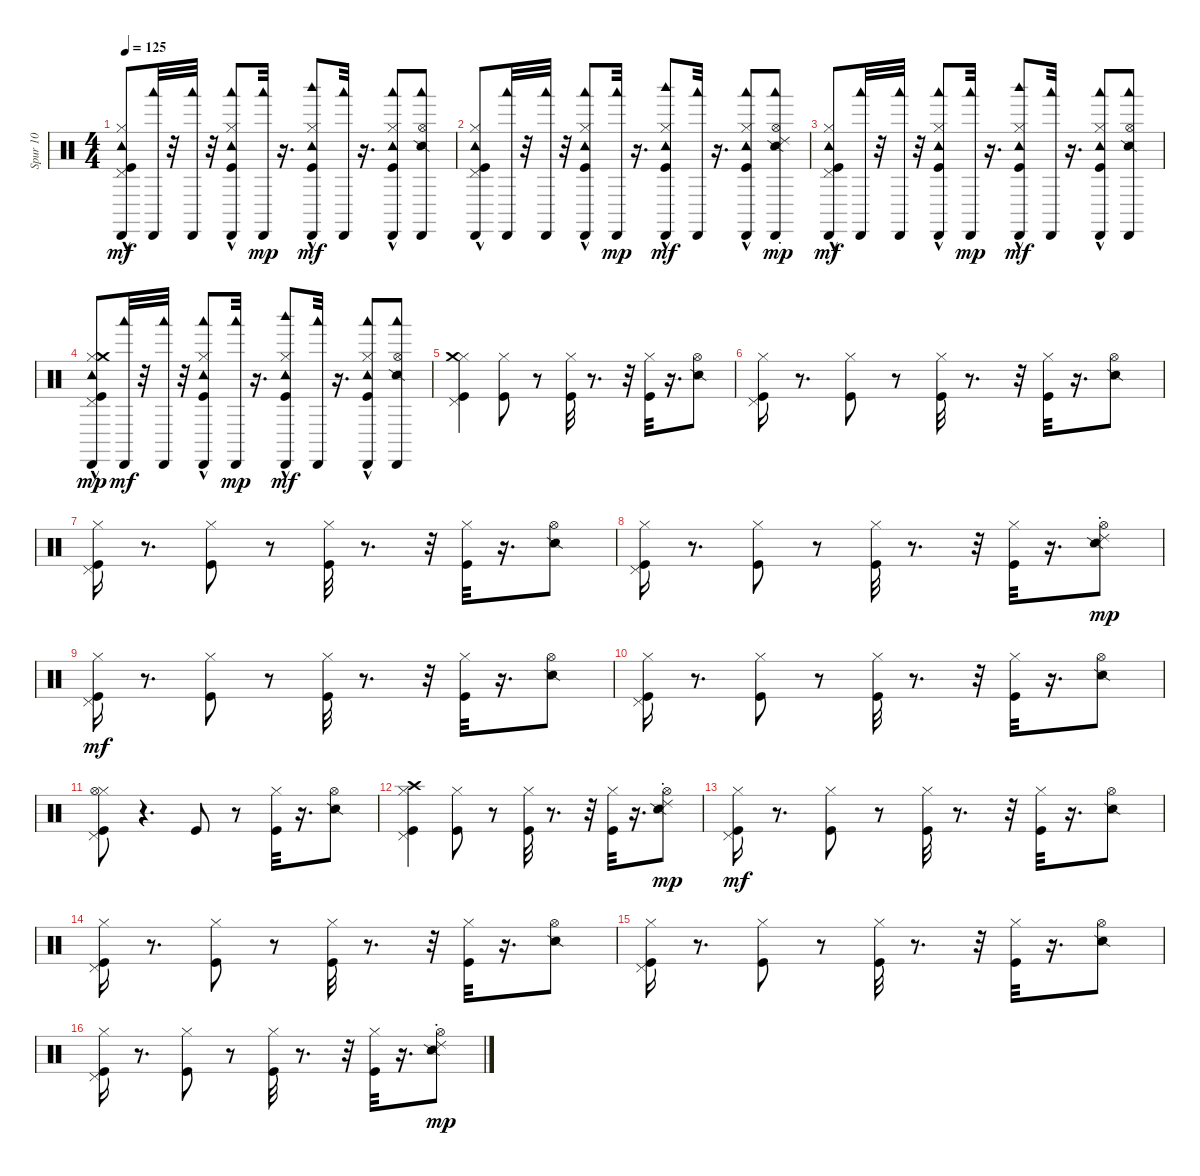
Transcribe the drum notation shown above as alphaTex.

\track ("Spur 10" "Spur 10") {instrument percussion}
\staff {score}
\articulation defaults
\ts (4 4)
\tempo 125
\clef neutral
\ks c
("Cabasa (hit)" "Tambourine (hit)"{hac} "Pedal Hi-Hat (hit)" "Kick (hit)" "Hi-Hat (closed)").8{dy mf} ("Woodblock low (hit)" "Cabasa (hit)").32 r.32 ("Woodblock low (hit)" "Cabasa (hit)").32 r.32 ("Woodblock low (hit)" "Cabasa (hit)" "Tambourine (hit)"{hac} "Hi-Hat (closed)" "Kick (hit)").8 ("Woodblock low (hit)" "Cabasa (hit)").32{dy mp} r.16{d} ("Woodblock high (hit)" "Cabasa (hit)" "Tambourine (hit)"{hac} "Hi-Hat (closed)" "Kick (hit)").8{dy mf} ("Woodblock low (hit)" "Cabasa (hit)").32 r.16{d} ("Woodblock low (hit)" "Cabasa (hit)" "Tambourine (hit)"{hac} "Hi-Hat (closed)" "Kick (hit)").8 ("Woodblock low (hit)" "Cabasa (hit)" "Hi-Hat (open)" "Snare (side stick) 2").8 |
("Cabasa (hit)" "Tambourine (hit)"{hac} "Pedal Hi-Hat (hit)" "Kick (hit)" "Hi-Hat (closed)").8 ("Woodblock low (hit)" "Cabasa (hit)").32 r.32 ("Woodblock low (hit)" "Cabasa (hit)").32 r.32 ("Woodblock low (hit)" "Cabasa (hit)" "Tambourine (hit)"{hac} "Hi-Hat (closed)" "Kick (hit)").8 ("Woodblock low (hit)" "Cabasa (hit)").32{dy mp} r.16{d} ("Woodblock high (hit)" "Cabasa (hit)" "Tambourine (hit)"{hac} "Hi-Hat (closed)" "Kick (hit)").8{dy mf} ("Woodblock low (hit)" "Cabasa (hit)").32 r.16{d} ("Woodblock low (hit)" "Cabasa (hit)" "Tambourine (hit)"{hac} "Hi-Hat (closed)" "Kick (hit)").8 ("Woodblock low (hit)" "Cabasa (hit)" "Hi-Hat (open)" "Snare (side stick) 2" "Ride (choke) 2").8{dy mp} |
("Cabasa (hit)" "Tambourine (hit)"{hac} "Pedal Hi-Hat (hit)" "Kick (hit)" "Hi-Hat (closed)").8{dy mf} ("Woodblock low (hit)" "Cabasa (hit)").32 r.32 ("Woodblock low (hit)" "Cabasa (hit)").32 r.32 ("Woodblock low (hit)" "Cabasa (hit)" "Tambourine (hit)"{hac} "Hi-Hat (closed)" "Kick (hit)").8 ("Woodblock low (hit)" "Cabasa (hit)").32{dy mp} r.16{d} ("Woodblock high (hit)" "Cabasa (hit)" "Tambourine (hit)"{hac} "Hi-Hat (closed)" "Kick (hit)").8{dy mf} ("Woodblock low (hit)" "Cabasa (hit)").32 r.16{d} ("Woodblock low (hit)" "Cabasa (hit)" "Tambourine (hit)"{hac} "Hi-Hat (closed)" "Kick (hit)").8 ("Woodblock low (hit)" "Cabasa (hit)" "Hi-Hat (open)" "Snare (side stick) 2").8 |
("Cabasa (hit)" "Tambourine (hit)"{hac} "Pedal Hi-Hat (hit)" "Kick (hit)" "Hi-Hat (closed)" "Crash medium (hit)"{hac}).8{dy mp} ("Woodblock low (hit)" "Cabasa (hit)").32{dy mf} r.32 ("Woodblock low (hit)" "Cabasa (hit)").32 r.32 ("Woodblock low (hit)" "Cabasa (hit)" "Tambourine (hit)"{hac} "Hi-Hat (closed)" "Kick (hit)").8 ("Woodblock low (hit)" "Cabasa (hit)").32{dy mp} r.16{d} ("Woodblock high (hit)" "Cabasa (hit)" "Tambourine (hit)"{hac} "Hi-Hat (closed)" "Kick (hit)").8{dy mf} ("Woodblock low (hit)" "Cabasa (hit)").32 r.16{d} ("Woodblock low (hit)" "Cabasa (hit)" "Tambourine (hit)"{hac} "Hi-Hat (closed)" "Kick (hit)").8 ("Woodblock low (hit)" "Cabasa (hit)" "Hi-Hat (open)" "Snare (side stick) 2").8 |
("Pedal Hi-Hat (hit)" "Kick (hit)" "Hi-Hat (closed)" "Crash medium (hit)").4 ("Hi-Hat (closed)" "Kick (hit)").8 r.8 ("Hi-Hat (closed)" "Kick (hit)").32 r.8{d} r.32 ("Hi-Hat (closed)" "Kick (hit)").32 r.16{d} ("Hi-Hat (open)" "Snare (side stick) 2").8 |
("Pedal Hi-Hat (hit)" "Kick (hit)" "Hi-Hat (closed)").16 r.8{d} ("Hi-Hat (closed)" "Kick (hit)").8 r.8 ("Hi-Hat (closed)" "Kick (hit)").32 r.8{d} r.32 ("Hi-Hat (closed)" "Kick (hit)").32 r.16{d} ("Hi-Hat (open)" "Snare (side stick) 2").8 |
("Pedal Hi-Hat (hit)" "Kick (hit)" "Hi-Hat (closed)").16 r.8{d} ("Hi-Hat (closed)" "Kick (hit)").8 r.8 ("Hi-Hat (closed)" "Kick (hit)").32 r.8{d} r.32 ("Hi-Hat (closed)" "Kick (hit)").32 r.16{d} ("Hi-Hat (open)" "Snare (side stick) 2").8 |
("Pedal Hi-Hat (hit)" "Kick (hit)" "Hi-Hat (closed)").16 r.8{d} ("Hi-Hat (closed)" "Kick (hit)").8 r.8 ("Hi-Hat (closed)" "Kick (hit)").32 r.8{d} r.32 ("Hi-Hat (closed)" "Kick (hit)").32 r.16{d} ("Hi-Hat (open)" "Snare (side stick) 2" "Ride (choke) 2").8{dy mp} |
("Pedal Hi-Hat (hit)" "Kick (hit)" "Hi-Hat (closed)").16{dy mf} r.8{d} ("Hi-Hat (closed)" "Kick (hit)").8 r.8 ("Hi-Hat (closed)" "Kick (hit)").32 r.8{d} r.32 ("Hi-Hat (closed)" "Kick (hit)").32 r.16{d} ("Hi-Hat (open)" "Snare (side stick) 2").8 |
("Pedal Hi-Hat (hit)" "Kick (hit)" "Hi-Hat (closed)").16 r.8{d} ("Hi-Hat (closed)" "Kick (hit)").8 r.8 ("Hi-Hat (closed)" "Kick (hit)").32 r.8{d} r.32 ("Hi-Hat (closed)" "Kick (hit)").32 r.16{d} ("Hi-Hat (open)" "Snare (side stick) 2").8 |
("Pedal Hi-Hat (hit)" "Kick (hit)" "Hi-Hat (closed)" "Hi-Hat (open)").8 r.4{d} "Kick (hit)".8 r.8 ("Hi-Hat (closed)" "Kick (hit)").32 r.16{d} ("Hi-Hat (open)" "Snare (side stick) 2").8 |
("Pedal Hi-Hat (hit)" "Kick (hit)" "Hi-Hat (closed)" "Crash high (hit)").4 ("Hi-Hat (closed)" "Kick (hit)").8 r.8 ("Hi-Hat (closed)" "Kick (hit)").32 r.8{d} r.32 ("Hi-Hat (closed)" "Kick (hit)").32 r.16{d} ("Hi-Hat (open)" "Snare (side stick) 2" "Ride (choke) 2").8{dy mp} |
("Pedal Hi-Hat (hit)" "Kick (hit)" "Hi-Hat (closed)").16{dy mf} r.8{d} ("Hi-Hat (closed)" "Kick (hit)").8 r.8 ("Hi-Hat (closed)" "Kick (hit)").32 r.8{d} r.32 ("Hi-Hat (closed)" "Kick (hit)").32 r.16{d} ("Hi-Hat (open)" "Snare (side stick) 2").8 |
("Pedal Hi-Hat (hit)" "Kick (hit)" "Hi-Hat (closed)").16 r.8{d} ("Hi-Hat (closed)" "Kick (hit)").8 r.8 ("Hi-Hat (closed)" "Kick (hit)").32 r.8{d} r.32 ("Hi-Hat (closed)" "Kick (hit)").32 r.16{d} ("Hi-Hat (open)" "Snare (side stick) 2").8 |
("Pedal Hi-Hat (hit)" "Kick (hit)" "Hi-Hat (closed)").16 r.8{d} ("Hi-Hat (closed)" "Kick (hit)").8 r.8 ("Hi-Hat (closed)" "Kick (hit)").32 r.8{d} r.32 ("Hi-Hat (closed)" "Kick (hit)").32 r.16{d} ("Hi-Hat (open)" "Snare (side stick) 2").8 |
("Pedal Hi-Hat (hit)" "Kick (hit)" "Hi-Hat (closed)").16 r.8{d} ("Hi-Hat (closed)" "Kick (hit)").8 r.8 ("Hi-Hat (closed)" "Kick (hit)").32 r.8{d} r.32 ("Hi-Hat (closed)" "Kick (hit)").32 r.16{d} ("Hi-Hat (open)" "Snare (side stick) 2" "Ride (choke) 2").8{dy mp}
